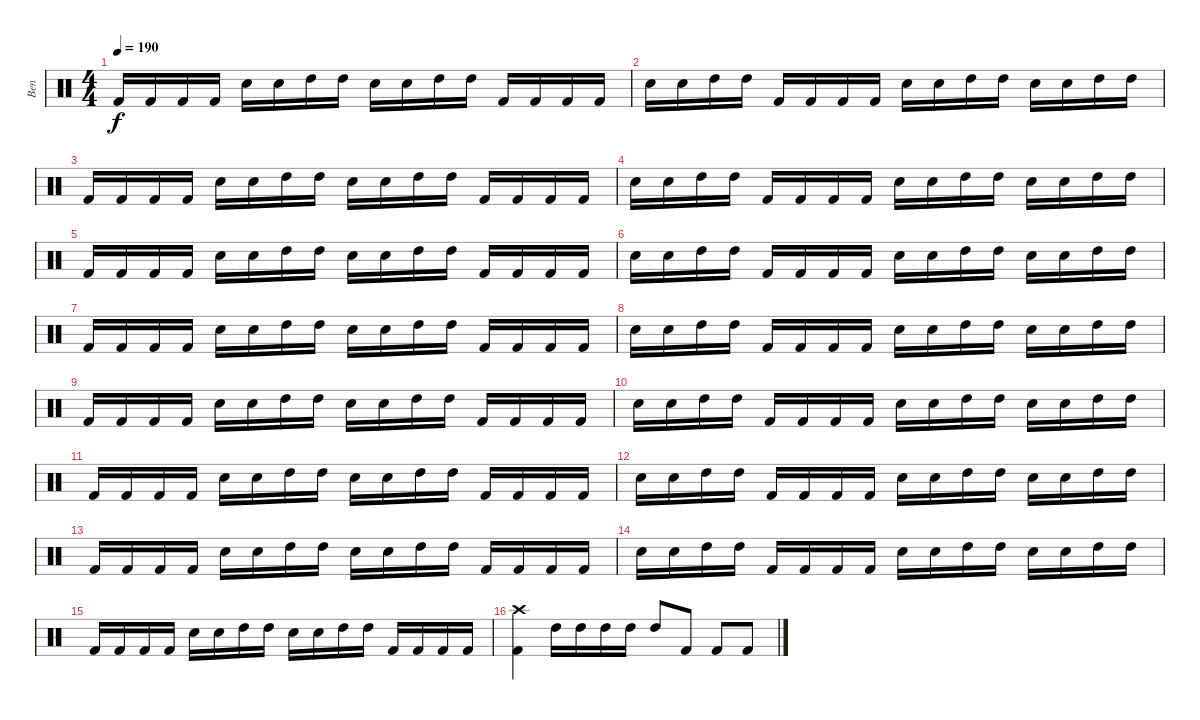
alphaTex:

\track ("Ben" "Ben") {instrument percussion}
\staff {score}
\articulation defaults
\ts (4 4)
\tempo 190
\clef neutral
\ks c "Kick (hit) 2".16{dy f} "Kick (hit) 2".16 "Kick (hit) 2".16 "Kick (hit) 2".16 "Electric Snare (hit)".16 "Electric Snare (hit)".16 "High Tom (hit)".16 "High Tom (hit)".16 "Electric Snare (hit)".16 "Electric Snare (hit)".16 "High Tom (hit)".16 "High Tom (hit)".16 "Kick (hit) 2".16 "Kick (hit) 2".16 "Kick (hit) 2".16 "Kick (hit) 2".16
|
"Electric Snare (hit)".16 "Electric Snare (hit)".16 "High Tom (hit)".16 "High Tom (hit)".16 "Kick (hit) 2".16 "Kick (hit) 2".16 "Kick (hit) 2".16 "Kick (hit) 2".16 "Electric Snare (hit)".16 "Electric Snare (hit)".16 "High Tom (hit)".16 "High Tom (hit)".16 "Electric Snare (hit)".16 "Electric Snare (hit)".16 "High Tom (hit)".16 "High Tom (hit)".16 |
"Kick (hit) 2".16 "Kick (hit) 2".16 "Kick (hit) 2".16 "Kick (hit) 2".16 "Electric Snare (hit)".16 "Electric Snare (hit)".16 "High Tom (hit)".16 "High Tom (hit)".16 "Electric Snare (hit)".16 "Electric Snare (hit)".16 "High Tom (hit)".16 "High Tom (hit)".16 "Kick (hit) 2".16 "Kick (hit) 2".16 "Kick (hit) 2".16 "Kick (hit) 2".16 |
"Electric Snare (hit)".16 "Electric Snare (hit)".16 "High Tom (hit)".16 "High Tom (hit)".16 "Kick (hit) 2".16 "Kick (hit) 2".16 "Kick (hit) 2".16 "Kick (hit) 2".16 "Electric Snare (hit)".16 "Electric Snare (hit)".16 "High Tom (hit)".16 "High Tom (hit)".16 "Electric Snare (hit)".16 "Electric Snare (hit)".16 "High Tom (hit)".16 "High Tom (hit)".16 |
"Kick (hit) 2".16 "Kick (hit) 2".16 "Kick (hit) 2".16 "Kick (hit) 2".16 "Electric Snare (hit)".16 "Electric Snare (hit)".16 "High Tom (hit)".16 "High Tom (hit)".16 "Electric Snare (hit)".16 "Electric Snare (hit)".16 "High Tom (hit)".16 "High Tom (hit)".16 "Kick (hit) 2".16 "Kick (hit) 2".16 "Kick (hit) 2".16 "Kick (hit) 2".16 |
"Electric Snare (hit)".16 "Electric Snare (hit)".16 "High Tom (hit)".16 "High Tom (hit)".16 "Kick (hit) 2".16 "Kick (hit) 2".16 "Kick (hit) 2".16 "Kick (hit) 2".16 "Electric Snare (hit)".16 "Electric Snare (hit)".16 "High Tom (hit)".16 "High Tom (hit)".16 "Electric Snare (hit)".16 "Electric Snare (hit)".16 "High Tom (hit)".16 "High Tom (hit)".16 |
"Kick (hit) 2".16 "Kick (hit) 2".16 "Kick (hit) 2".16 "Kick (hit) 2".16 "Electric Snare (hit)".16 "Electric Snare (hit)".16 "High Tom (hit)".16 "High Tom (hit)".16 "Electric Snare (hit)".16 "Electric Snare (hit)".16 "High Tom (hit)".16 "High Tom (hit)".16 "Kick (hit) 2".16 "Kick (hit) 2".16 "Kick (hit) 2".16 "Kick (hit) 2".16 |
"Electric Snare (hit)".16 "Electric Snare (hit)".16 "High Tom (hit)".16 "High Tom (hit)".16 "Kick (hit) 2".16 "Kick (hit) 2".16 "Kick (hit) 2".16 "Kick (hit) 2".16 "Electric Snare (hit)".16 "Electric Snare (hit)".16 "High Tom (hit)".16 "High Tom (hit)".16 "Electric Snare (hit)".16 "Electric Snare (hit)".16 "High Tom (hit)".16 "High Tom (hit)".16 |
"Kick (hit) 2".16 "Kick (hit) 2".16 "Kick (hit) 2".16 "Kick (hit) 2".16 "Electric Snare (hit)".16 "Electric Snare (hit)".16 "High Tom (hit)".16 "High Tom (hit)".16 "Electric Snare (hit)".16 "Electric Snare (hit)".16 "High Tom (hit)".16 "High Tom (hit)".16 "Kick (hit) 2".16 "Kick (hit) 2".16 "Kick (hit) 2".16 "Kick (hit) 2".16 |
"Electric Snare (hit)".16 "Electric Snare (hit)".16 "High Tom (hit)".16 "High Tom (hit)".16 "Kick (hit) 2".16 "Kick (hit) 2".16 "Kick (hit) 2".16 "Kick (hit) 2".16 "Electric Snare (hit)".16 "Electric Snare (hit)".16 "High Tom (hit)".16 "High Tom (hit)".16 "Electric Snare (hit)".16 "Electric Snare (hit)".16 "High Tom (hit)".16 "High Tom (hit)".16 |
"Kick (hit) 2".16 "Kick (hit) 2".16 "Kick (hit) 2".16 "Kick (hit) 2".16 "Electric Snare (hit)".16 "Electric Snare (hit)".16 "High Tom (hit)".16 "High Tom (hit)".16 "Electric Snare (hit)".16 "Electric Snare (hit)".16 "High Tom (hit)".16 "High Tom (hit)".16 "Kick (hit) 2".16 "Kick (hit) 2".16 "Kick (hit) 2".16 "Kick (hit) 2".16 |
"Electric Snare (hit)".16 "Electric Snare (hit)".16 "High Tom (hit)".16 "High Tom (hit)".16 "Kick (hit) 2".16 "Kick (hit) 2".16 "Kick (hit) 2".16 "Kick (hit) 2".16 "Electric Snare (hit)".16 "Electric Snare (hit)".16 "High Tom (hit)".16 "High Tom (hit)".16 "Electric Snare (hit)".16 "Electric Snare (hit)".16 "High Tom (hit)".16 "High Tom (hit)".16 |
"Kick (hit) 2".16 "Kick (hit) 2".16 "Kick (hit) 2".16 "Kick (hit) 2".16 "Electric Snare (hit)".16 "Electric Snare (hit)".16 "High Tom (hit)".16 "High Tom (hit)".16 "Electric Snare (hit)".16 "Electric Snare (hit)".16 "High Tom (hit)".16 "High Tom (hit)".16 "Kick (hit) 2".16 "Kick (hit) 2".16 "Kick (hit) 2".16 "Kick (hit) 2".16 |
"Electric Snare (hit)".16 "Electric Snare (hit)".16 "High Tom (hit)".16 "High Tom (hit)".16 "Kick (hit) 2".16 "Kick (hit) 2".16 "Kick (hit) 2".16 "Kick (hit) 2".16 "Electric Snare (hit)".16 "Electric Snare (hit)".16 "High Tom (hit)".16 "High Tom (hit)".16 "Electric Snare (hit)".16 "Electric Snare (hit)".16 "High Tom (hit)".16 "High Tom (hit)".16 |
"Kick (hit) 2".16 "Kick (hit) 2".16 "Kick (hit) 2".16 "Kick (hit) 2".16 "Electric Snare (hit)".16 "Electric Snare (hit)".16 "High Tom (hit)".16 "High Tom (hit)".16 "Electric Snare (hit)".16 "Electric Snare (hit)".16 "High Tom (hit)".16 "High Tom (hit)".16 "Kick (hit) 2".16 "Kick (hit) 2".16 "Kick (hit) 2".16 "Kick (hit) 2".16 |
("Crash high (hit)" "Kick (hit) 2").4 "High Tom (hit)".16 "High Tom (hit)".16 "High Tom (hit)".16 "High Tom (hit)".16 "High Tom (hit)".8 "Kick (hit) 2".8 "Kick (hit) 2".8 "Kick (hit) 2".8
